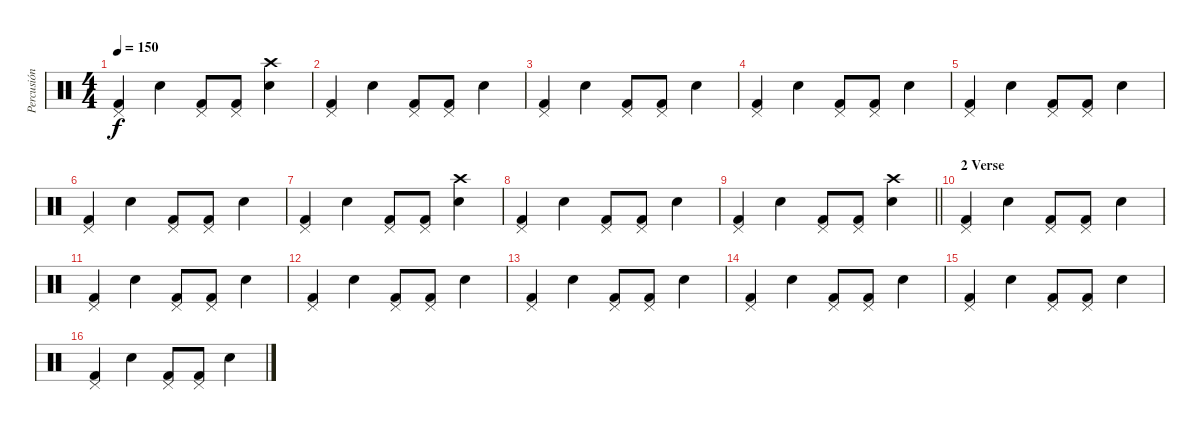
\track ("Percusión" "Percusión") {instrument percussion}
\staff {score}
\articulation defaults
\ts (4 4)
\tempo 150
\clef neutral
\ks c
("Pedal Hi-Hat (hit)" "Kick (hit) 2").4{dy f} "Snare (hit) 2".4 ("Pedal Hi-Hat (hit)" "Kick (hit) 2").8 ("Pedal Hi-Hat (hit)" "Kick (hit) 2").8 ("Crash high (hit)" "Snare (hit) 2").4 |
("Pedal Hi-Hat (hit)" "Kick (hit) 2").4 "Snare (hit) 2".4 ("Pedal Hi-Hat (hit)" "Kick (hit) 2").8 ("Pedal Hi-Hat (hit)" "Kick (hit) 2").8 "Snare (hit) 2".4 |
("Pedal Hi-Hat (hit)" "Kick (hit) 2").4 "Snare (hit) 2".4 ("Pedal Hi-Hat (hit)" "Kick (hit) 2").8 ("Pedal Hi-Hat (hit)" "Kick (hit) 2").8 "Snare (hit) 2".4 |
("Pedal Hi-Hat (hit)" "Kick (hit) 2").4 "Snare (hit) 2".4 ("Pedal Hi-Hat (hit)" "Kick (hit) 2").8 ("Pedal Hi-Hat (hit)" "Kick (hit) 2").8 "Snare (hit) 2".4 |
("Pedal Hi-Hat (hit)" "Kick (hit) 2").4 "Snare (hit) 2".4 ("Pedal Hi-Hat (hit)" "Kick (hit) 2").8 ("Pedal Hi-Hat (hit)" "Kick (hit) 2").8 "Snare (hit) 2".4 |
("Pedal Hi-Hat (hit)" "Kick (hit) 2").4 "Snare (hit) 2".4 ("Pedal Hi-Hat (hit)" "Kick (hit) 2").8 ("Pedal Hi-Hat (hit)" "Kick (hit) 2").8 "Snare (hit) 2".4 |
("Pedal Hi-Hat (hit)" "Kick (hit) 2").4 "Snare (hit) 2".4 ("Pedal Hi-Hat (hit)" "Kick (hit) 2").8 ("Pedal Hi-Hat (hit)" "Kick (hit) 2").8 ("Crash high (hit)" "Snare (hit) 2").4 |
("Pedal Hi-Hat (hit)" "Kick (hit) 2").4 "Snare (hit) 2".4 ("Pedal Hi-Hat (hit)" "Kick (hit) 2").8 ("Pedal Hi-Hat (hit)" "Kick (hit) 2").8 "Snare (hit) 2".4 |
\barLineRight lightlight
("Pedal Hi-Hat (hit)" "Kick (hit) 2").4 "Snare (hit) 2".4 ("Pedal Hi-Hat (hit)" "Kick (hit) 2").8 ("Pedal Hi-Hat (hit)" "Kick (hit) 2").8 ("Crash high (hit)" "Snare (hit) 2").4 |
\section ("" "2 Verse")
("Pedal Hi-Hat (hit)" "Kick (hit) 2").4 "Snare (hit) 2".4 ("Pedal Hi-Hat (hit)" "Kick (hit) 2").8 ("Pedal Hi-Hat (hit)" "Kick (hit) 2").8 "Snare (hit) 2".4 |
("Pedal Hi-Hat (hit)" "Kick (hit) 2").4 "Snare (hit) 2".4 ("Pedal Hi-Hat (hit)" "Kick (hit) 2").8 ("Pedal Hi-Hat (hit)" "Kick (hit) 2").8 "Snare (hit) 2".4 |
("Pedal Hi-Hat (hit)" "Kick (hit) 2").4 "Snare (hit) 2".4 ("Pedal Hi-Hat (hit)" "Kick (hit) 2").8 ("Pedal Hi-Hat (hit)" "Kick (hit) 2").8 "Snare (hit) 2".4 |
("Pedal Hi-Hat (hit)" "Kick (hit) 2").4 "Snare (hit) 2".4 ("Pedal Hi-Hat (hit)" "Kick (hit) 2").8 ("Pedal Hi-Hat (hit)" "Kick (hit) 2").8 "Snare (hit) 2".4 |
("Pedal Hi-Hat (hit)" "Kick (hit) 2").4 "Snare (hit) 2".4 ("Pedal Hi-Hat (hit)" "Kick (hit) 2").8 ("Pedal Hi-Hat (hit)" "Kick (hit) 2").8 "Snare (hit) 2".4 |
("Pedal Hi-Hat (hit)" "Kick (hit) 2").4 "Snare (hit) 2".4 ("Pedal Hi-Hat (hit)" "Kick (hit) 2").8 ("Pedal Hi-Hat (hit)" "Kick (hit) 2").8 "Snare (hit) 2".4 |
("Pedal Hi-Hat (hit)" "Kick (hit) 2").4 "Snare (hit) 2".4 ("Pedal Hi-Hat (hit)" "Kick (hit) 2").8 ("Pedal Hi-Hat (hit)" "Kick (hit) 2").8 "Snare (hit) 2".4
